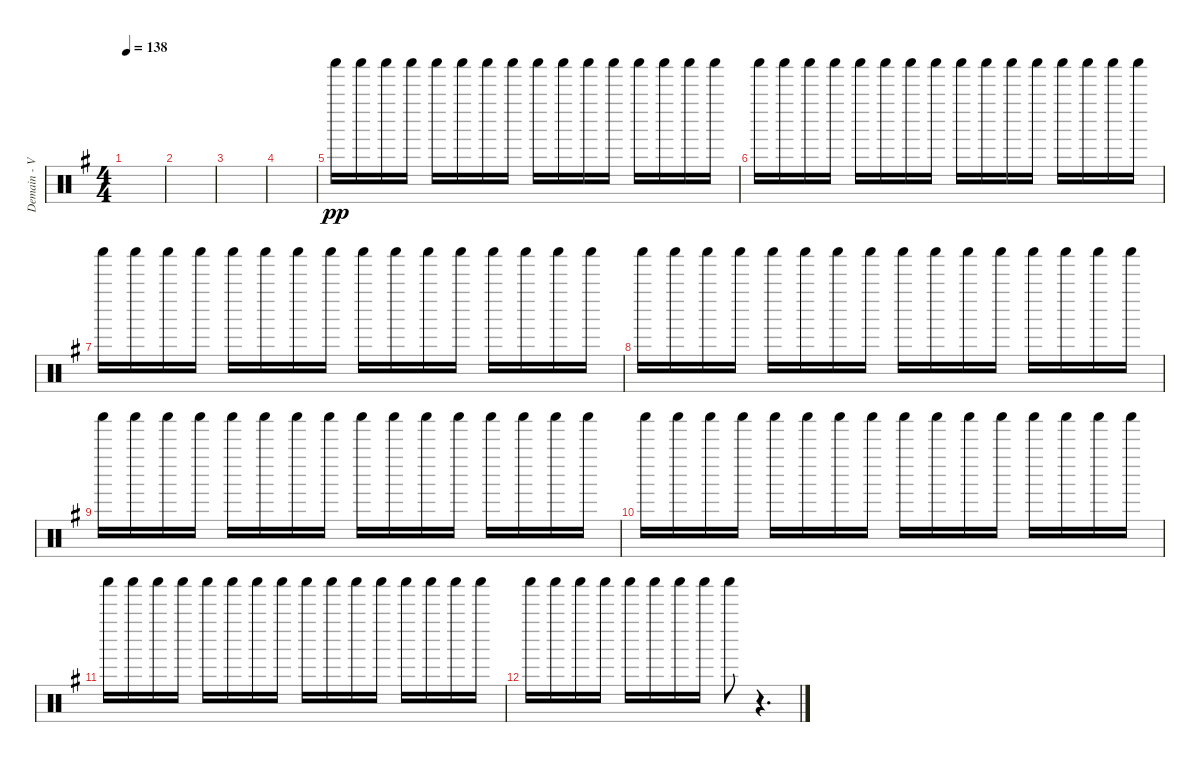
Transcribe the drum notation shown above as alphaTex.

\track ("Demain - Various Perc." "Demain - V") {instrument percussion}
\staff {score}
\articulation defaults
\ts (4 4)
\tempo 138
\clef neutral
\ks g
|
|
|
|
"Shaker (hit)".16{dy pp} "Shaker (hit)".16 "Shaker (hit)".16 "Shaker (hit)".16 "Shaker (hit)".16 "Shaker (hit)".16 "Shaker (hit)".16 "Shaker (hit)".16 "Shaker (hit)".16 "Shaker (hit)".16 "Shaker (hit)".16 "Shaker (hit)".16 "Shaker (hit)".16 "Shaker (hit)".16 "Shaker (hit)".16 "Shaker (hit)".16 |
"Shaker (hit)".16 "Shaker (hit)".16 "Shaker (hit)".16 "Shaker (hit)".16 "Shaker (hit)".16 "Shaker (hit)".16 "Shaker (hit)".16 "Shaker (hit)".16 "Shaker (hit)".16 "Shaker (hit)".16 "Shaker (hit)".16 "Shaker (hit)".16 "Shaker (hit)".16 "Shaker (hit)".16 "Shaker (hit)".16 "Shaker (hit)".16 |
"Shaker (hit)".16 "Shaker (hit)".16 "Shaker (hit)".16 "Shaker (hit)".16 "Shaker (hit)".16 "Shaker (hit)".16 "Shaker (hit)".16 "Shaker (hit)".16 "Shaker (hit)".16 "Shaker (hit)".16 "Shaker (hit)".16 "Shaker (hit)".16 "Shaker (hit)".16 "Shaker (hit)".16 "Shaker (hit)".16 "Shaker (hit)".16 |
"Shaker (hit)".16 "Shaker (hit)".16 "Shaker (hit)".16 "Shaker (hit)".16 "Shaker (hit)".16 "Shaker (hit)".16 "Shaker (hit)".16 "Shaker (hit)".16 "Shaker (hit)".16 "Shaker (hit)".16 "Shaker (hit)".16 "Shaker (hit)".16 "Shaker (hit)".16 "Shaker (hit)".16 "Shaker (hit)".16 "Shaker (hit)".16 |
"Shaker (hit)".16 "Shaker (hit)".16 "Shaker (hit)".16 "Shaker (hit)".16 "Shaker (hit)".16 "Shaker (hit)".16 "Shaker (hit)".16 "Shaker (hit)".16 "Shaker (hit)".16 "Shaker (hit)".16 "Shaker (hit)".16 "Shaker (hit)".16 "Shaker (hit)".16 "Shaker (hit)".16 "Shaker (hit)".16 "Shaker (hit)".16 |
"Shaker (hit)".16 "Shaker (hit)".16 "Shaker (hit)".16 "Shaker (hit)".16 "Shaker (hit)".16 "Shaker (hit)".16 "Shaker (hit)".16 "Shaker (hit)".16 "Shaker (hit)".16 "Shaker (hit)".16 "Shaker (hit)".16 "Shaker (hit)".16 "Shaker (hit)".16 "Shaker (hit)".16 "Shaker (hit)".16 "Shaker (hit)".16 |
"Shaker (hit)".16 "Shaker (hit)".16 "Shaker (hit)".16 "Shaker (hit)".16 "Shaker (hit)".16 "Shaker (hit)".16 "Shaker (hit)".16 "Shaker (hit)".16 "Shaker (hit)".16 "Shaker (hit)".16 "Shaker (hit)".16 "Shaker (hit)".16 "Shaker (hit)".16 "Shaker (hit)".16 "Shaker (hit)".16 "Shaker (hit)".16 |
"Shaker (hit)".16 "Shaker (hit)".16 "Shaker (hit)".16 "Shaker (hit)".16 "Shaker (hit)".16 "Shaker (hit)".16 "Shaker (hit)".16 "Shaker (hit)".16 "Shaker (hit)".8 r.4{d}
